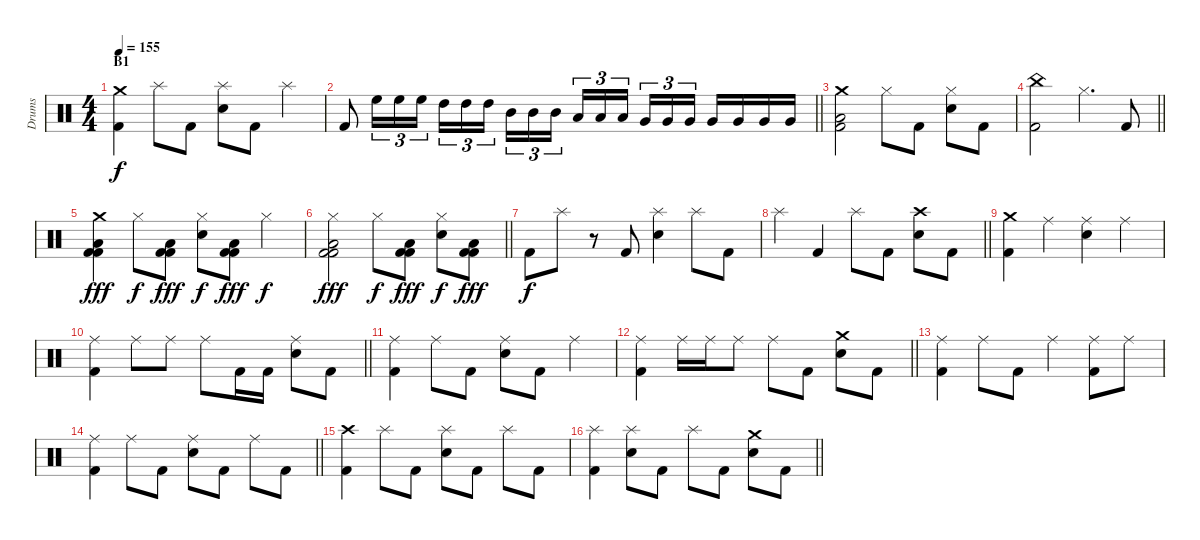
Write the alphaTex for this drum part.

\track ("Drums" "Drums") {instrument percussion}
\staff {score}
\articulation defaults
\ts (4 4)
\section ("" "B1")
\tempo 155
\clef neutral
\ks c
("Crash medium (hit)" "Kick (hit) 2").4{dy f} "Splash (hit)".8 "Kick (hit) 2".8 ("Splash (hit)" "Electric Snare (hit)").8 "Kick (hit) 2".8 "Splash (hit)".4 |
\barLineRight lightlight "Kick (hit) 2".8 "High Floor Tom (hit)".16{tu (3 2)} "High Floor Tom (hit)".16{tu (3 2)} "High Floor Tom (hit)".16{tu (3 2)} "High Tom (hit)".16{tu (3 2)} "High Tom (hit)".16{tu (3 2)} "High Tom (hit)".16{tu (3 2) beam splitsecondary} "Mid Tom (hit)".16{tu (3 2)} "Mid Tom (hit)".16{tu (3 2)} "Mid Tom (hit)".16{tu (3 2)} "Low Tom (hit)".16{tu (3 2)} "Low Tom (hit)".16{tu (3 2)} "Low Tom (hit)".16{tu (3 2) beam splitsecondary} "Very Low Tom (hit)".16{tu (3 2)} "Very Low Tom (hit)".16{tu (3 2)} "Very Low Tom (hit)".16{tu (3 2)} "Very Low Tom (hit)".16 "Very Low Tom (hit)".16 "Very Low Tom (hit)".16 "Very Low Tom (hit)".16
|
("Crash medium (hit)" "Low Floor Tom (hit)" "Kick (hit) 2").2 "Hi-Hat (closed)".8 "Kick (hit) 2".8 ("Hi-Hat (closed)" "Electric Snare (hit)").8 "Kick (hit) 2".8 |
\barLineRight lightlight
("China (hit)" "Kick (hit) 2").2 "Hi-Hat (closed)".4{d} "Kick (hit) 2".8 |
\section ("" "")
("Crash medium (hit)" "Low Floor Tom (hit)" "Kick (hit) 2" "Kick (hit) 2").4{dy fff} "Hi-Hat (closed)".8{dy f} ("Low Floor Tom (hit)" "Kick (hit) 2" "Kick (hit) 2").8{dy fff} ("Hi-Hat (closed)" "Electric Snare (hit)").8{dy f} ("Low Floor Tom (hit)" "Kick (hit) 2" "Kick (hit) 2").8{dy fff} "Hi-Hat (closed)".4{dy f} |
\barLineRight lightlight
("Hi-Hat (closed)" "Low Floor Tom (hit)" "Kick (hit) 2" "Kick (hit) 2").2{dy fff} "Hi-Hat (closed)".8{dy f} ("Low Floor Tom (hit)" "Kick (hit) 2" "Kick (hit) 2").8{dy fff} ("Hi-Hat (closed)" "Electric Snare (hit)").8{dy f} ("Low Floor Tom (hit)" "Kick (hit) 2" "Kick (hit) 2").8{dy fff} |
"Kick (hit) 2".8{dy f} "Splash (hit)".8 r.8 "Kick (hit) 2".8 ("Splash (hit)" "Electric Snare (hit)").4 "Splash (hit)".8 "Kick (hit) 2".8 |
\barLineRight lightlight "Splash (hit)".4 "Kick (hit) 2".4 "Splash (hit)".8 "Kick (hit) 2".8
("Crash high (hit)" "Snare (hit) 2").8 "Kick (hit) 2".8 |
\section ("" "")
("Crash medium (hit)" "Kick (hit) 2").4 "Ride (middle)".4 ("Ride (middle)" "Electric Snare (hit)").4 "Ride (middle)".4 |
\barLineRight lightlight
("Ride (middle)" "Kick (hit) 2").4 "Ride (middle)".8 "Ride (middle)".8 "Ride (middle)".8 "Kick (hit) 2".16 "Kick (hit) 2".16 ("Ride (middle)" "Electric Snare (hit)").8 "Kick (hit) 2".8 |
("Ride (middle)" "Kick (hit) 2").4 "Ride (middle)".8 "Kick (hit) 2".8 ("Ride (middle)" "Electric Snare (hit)").8 "Kick (hit) 2".8 "Ride (middle)".4 |
\barLineRight lightlight
("Ride (middle)" "Kick (hit) 2").4 "Ride (middle)".16 "Ride (middle)".16 "Ride (middle)".8 "Ride (middle)".8 "Kick (hit) 2".8 ("Crash medium (hit)" "Electric Snare (hit)").8 "Kick (hit) 2".8 |
\section ("" "")
("Ride (middle)" "Kick (hit) 2").4 "Ride (middle)".8 "Kick (hit) 2".8 "Ride (middle)".4 ("Ride (middle)" "Kick (hit) 2").8 "Ride (middle)".8 |
\barLineRight lightlight
("Ride (middle)" "Kick (hit) 2").4 "Ride (middle)".8 "Kick (hit) 2".8 ("Ride (middle)" "Electric Snare (hit)").8 "Kick (hit) 2".8 "Ride (middle)".8 "Kick (hit) 2".8 |
("Crash high (hit)" "Kick (hit) 2").4 "Splash (hit)".8 "Kick (hit) 2".8 ("Splash (hit)" "Electric Snare (hit)").8 "Kick (hit) 2".8 "Splash (hit)".8 "Kick (hit) 2".8 |
\barLineRight lightlight
("Splash (hit)" "Kick (hit) 2").4 ("Splash (hit)" "Electric Snare (hit)").8 "Kick (hit) 2".8 "Splash (hit)".8 "Kick (hit) 2".8 ("Crash medium (hit)" "Electric Snare (hit)").8 "Kick (hit) 2".8
